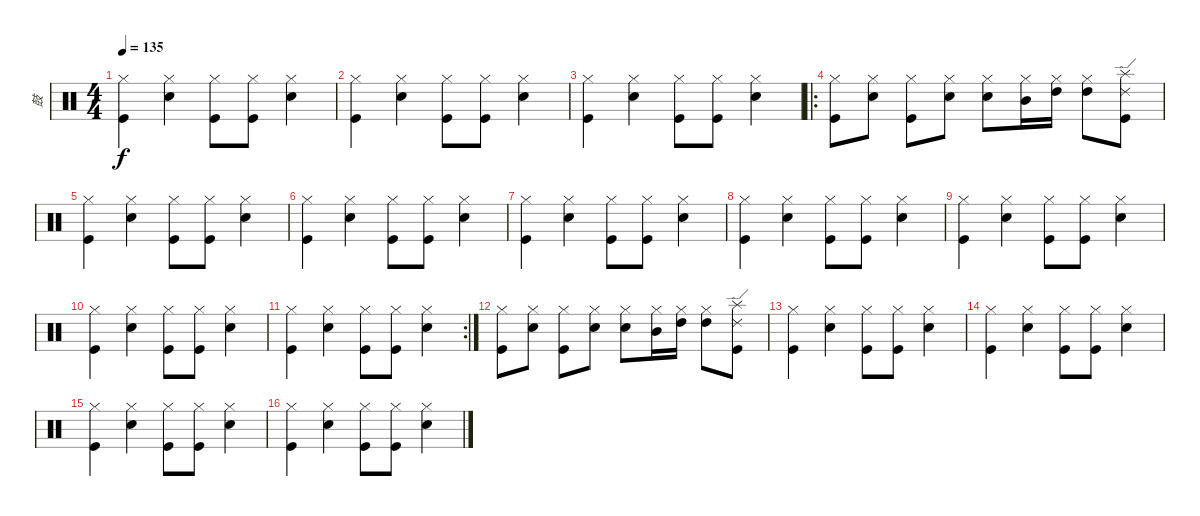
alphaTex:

\track ("鼓" "鼓") {instrument percussion}
\staff {score}
\articulation defaults
\ts (4 4)
\tempo 135
\clef neutral
\ks c
("Hi-Hat (closed)" "Kick (hit)").4{dy f} ("Hi-Hat (closed)" "Metronome (bell)").4 ("Hi-Hat (closed)" "Kick (hit)").8 ("Hi-Hat (closed)" "Kick (hit)").8 ("Hi-Hat (closed)" "Metronome (bell)").4 |
("Hi-Hat (closed)" "Kick (hit)").4 ("Hi-Hat (closed)" "Metronome (bell)").4 ("Hi-Hat (closed)" "Kick (hit)").8 ("Hi-Hat (closed)" "Kick (hit)").8 ("Hi-Hat (closed)" "Metronome (bell)").4 |
("Hi-Hat (closed)" "Kick (hit)").4 ("Hi-Hat (closed)" "Metronome (bell)").4 ("Hi-Hat (closed)" "Kick (hit)").8 ("Hi-Hat (closed)" "Kick (hit)").8 ("Hi-Hat (closed)" "Metronome (bell)").4 |
\ro
("Hi-Hat (closed)" "Kick (hit)").8 ("Hi-Hat (closed)" "Metronome (bell)").8 ("Hi-Hat (closed)" "Kick (hit)").8 ("Hi-Hat (closed)" "Metronome (bell)").8 ("Hi-Hat (closed)" "Metronome (bell)").8 ("Hi-Hat (closed)" "Mid Tom (hit)").16 ("Hi-Hat (closed)" "High Tom (hit)").16 ("Hi-Hat (closed)" "High Tom (hit)").8 ("Splash (hit)" "Ride (edge) 2" "Kick (hit)").8 |
("Hi-Hat (closed)" "Kick (hit)").4 ("Hi-Hat (closed)" "Metronome (bell)").4 ("Hi-Hat (closed)" "Kick (hit)").8 ("Hi-Hat (closed)" "Kick (hit)").8 ("Hi-Hat (closed)" "Metronome (bell)").4 |
("Hi-Hat (closed)" "Kick (hit)").4 ("Hi-Hat (closed)" "Metronome (bell)").4 ("Hi-Hat (closed)" "Kick (hit)").8 ("Hi-Hat (closed)" "Kick (hit)").8 ("Hi-Hat (closed)" "Metronome (bell)").4 |
("Hi-Hat (closed)" "Kick (hit)").4 ("Hi-Hat (closed)" "Metronome (bell)").4 ("Hi-Hat (closed)" "Kick (hit)").8 ("Hi-Hat (closed)" "Kick (hit)").8 ("Hi-Hat (closed)" "Metronome (bell)").4 |
("Hi-Hat (closed)" "Kick (hit)").4 ("Hi-Hat (closed)" "Metronome (bell)").4 ("Hi-Hat (closed)" "Kick (hit)").8 ("Hi-Hat (closed)" "Kick (hit)").8 ("Hi-Hat (closed)" "Metronome (bell)").4 |
("Hi-Hat (closed)" "Kick (hit)").4 ("Hi-Hat (closed)" "Metronome (bell)").4 ("Hi-Hat (closed)" "Kick (hit)").8 ("Hi-Hat (closed)" "Kick (hit)").8 ("Hi-Hat (closed)" "Metronome (bell)").4 |
("Hi-Hat (closed)" "Kick (hit)").4 ("Hi-Hat (closed)" "Metronome (bell)").4 ("Hi-Hat (closed)" "Kick (hit)").8 ("Hi-Hat (closed)" "Kick (hit)").8 ("Hi-Hat (closed)" "Metronome (bell)").4 |
\rc 2
("Hi-Hat (closed)" "Kick (hit)").4 ("Hi-Hat (closed)" "Metronome (bell)").4 ("Hi-Hat (closed)" "Kick (hit)").8 ("Hi-Hat (closed)" "Kick (hit)").8 ("Hi-Hat (closed)" "Metronome (bell)").4 |
("Hi-Hat (closed)" "Kick (hit)").8 ("Hi-Hat (closed)" "Metronome (bell)").8 ("Hi-Hat (closed)" "Kick (hit)").8 ("Hi-Hat (closed)" "Metronome (bell)").8 ("Hi-Hat (closed)" "Metronome (bell)").8 ("Hi-Hat (closed)" "Mid Tom (hit)").16 ("Hi-Hat (closed)" "High Tom (hit)").16 ("Hi-Hat (closed)" "High Tom (hit)").8 ("Splash (hit)" "Ride (edge) 2" "Kick (hit)").8 |
("Hi-Hat (closed)" "Kick (hit)").4 ("Hi-Hat (closed)" "Metronome (bell)").4 ("Hi-Hat (closed)" "Kick (hit)").8 ("Hi-Hat (closed)" "Kick (hit)").8 ("Hi-Hat (closed)" "Metronome (bell)").4 |
("Hi-Hat (closed)" "Kick (hit)").4 ("Hi-Hat (closed)" "Metronome (bell)").4 ("Hi-Hat (closed)" "Kick (hit)").8 ("Hi-Hat (closed)" "Kick (hit)").8 ("Hi-Hat (closed)" "Metronome (bell)").4 |
("Hi-Hat (closed)" "Kick (hit)").4 ("Hi-Hat (closed)" "Metronome (bell)").4 ("Hi-Hat (closed)" "Kick (hit)").8 ("Hi-Hat (closed)" "Kick (hit)").8 ("Hi-Hat (closed)" "Metronome (bell)").4 |
("Hi-Hat (closed)" "Kick (hit)").4 ("Hi-Hat (closed)" "Metronome (bell)").4 ("Hi-Hat (closed)" "Kick (hit)").8 ("Hi-Hat (closed)" "Kick (hit)").8 ("Hi-Hat (closed)" "Metronome (bell)").4
